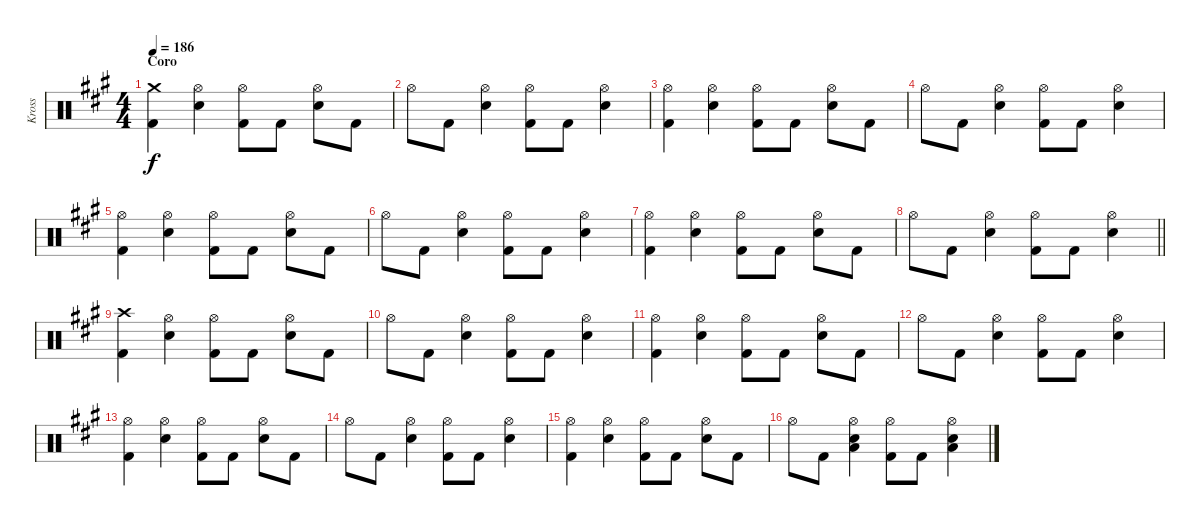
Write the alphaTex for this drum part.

\track ("Kross" "Kross") {instrument percussion}
\staff {score}
\articulation defaults
\ts (4 4)
\section ("" "Coro")
\tempo 186
\clef neutral
\ks a
("Crash medium (hit)" "Kick (hit) 2").4{dy f} ("Hi-Hat (open)" "Electric Snare (hit)").4 ("Hi-Hat (open)" "Kick (hit) 2").8 "Kick (hit) 2".8 ("Hi-Hat (open)" "Electric Snare (hit)").8 "Kick (hit) 2".8 |
"Hi-Hat (open)".8 "Kick (hit) 2".8 ("Hi-Hat (open)" "Electric Snare (hit)").4 ("Hi-Hat (open)" "Kick (hit) 2").8 "Kick (hit) 2".8 ("Hi-Hat (open)" "Electric Snare (hit)").4 |
("Hi-Hat (open)" "Kick (hit) 2").4 ("Hi-Hat (open)" "Electric Snare (hit)").4 ("Hi-Hat (open)" "Kick (hit) 2").8 "Kick (hit) 2".8 ("Hi-Hat (open)" "Electric Snare (hit)").8 "Kick (hit) 2".8 |
"Hi-Hat (open)".8 "Kick (hit) 2".8 ("Hi-Hat (open)" "Electric Snare (hit)").4 ("Hi-Hat (open)" "Kick (hit) 2").8 "Kick (hit) 2".8 ("Hi-Hat (open)" "Electric Snare (hit)").4 |
("Hi-Hat (open)" "Kick (hit) 2").4 ("Hi-Hat (open)" "Electric Snare (hit)").4 ("Hi-Hat (open)" "Kick (hit) 2").8 "Kick (hit) 2".8 ("Hi-Hat (open)" "Electric Snare (hit)").8 "Kick (hit) 2".8 |
"Hi-Hat (open)".8 "Kick (hit) 2".8 ("Hi-Hat (open)" "Electric Snare (hit)").4 ("Hi-Hat (open)" "Kick (hit) 2").8 "Kick (hit) 2".8 ("Hi-Hat (open)" "Electric Snare (hit)").4 |
("Hi-Hat (open)" "Kick (hit) 2").4 ("Hi-Hat (open)" "Electric Snare (hit)").4 ("Hi-Hat (open)" "Kick (hit) 2").8 "Kick (hit) 2".8 ("Hi-Hat (open)" "Electric Snare (hit)").8 "Kick (hit) 2".8 |
\barLineRight lightlight "Hi-Hat (open)".8 "Kick (hit) 2".8
("Hi-Hat (open)" "Electric Snare (hit)").4 ("Hi-Hat (open)" "Kick (hit) 2").8 "Kick (hit) 2".8 ("Hi-Hat (open)" "Electric Snare (hit)").4 |
("Crash high (hit)" "Kick (hit) 2").4 ("Hi-Hat (open)" "Electric Snare (hit)").4 ("Hi-Hat (open)" "Kick (hit) 2").8 "Kick (hit) 2".8 ("Hi-Hat (open)" "Electric Snare (hit)").8 "Kick (hit) 2".8 |
"Hi-Hat (open)".8 "Kick (hit) 2".8 ("Hi-Hat (open)" "Electric Snare (hit)").4 ("Hi-Hat (open)" "Kick (hit) 2").8 "Kick (hit) 2".8 ("Hi-Hat (open)" "Electric Snare (hit)").4 |
("Hi-Hat (open)" "Kick (hit) 2").4 ("Hi-Hat (open)" "Electric Snare (hit)").4 ("Hi-Hat (open)" "Kick (hit) 2").8 "Kick (hit) 2".8 ("Hi-Hat (open)" "Electric Snare (hit)").8 "Kick (hit) 2".8 |
"Hi-Hat (open)".8 "Kick (hit) 2".8 ("Hi-Hat (open)" "Electric Snare (hit)").4 ("Hi-Hat (open)" "Kick (hit) 2").8 "Kick (hit) 2".8 ("Hi-Hat (open)" "Electric Snare (hit)").4 |
("Hi-Hat (open)" "Kick (hit) 2").4 ("Hi-Hat (open)" "Electric Snare (hit)").4 ("Hi-Hat (open)" "Kick (hit) 2").8 "Kick (hit) 2".8 ("Hi-Hat (open)" "Electric Snare (hit)").8 "Kick (hit) 2".8 |
"Hi-Hat (open)".8 "Kick (hit) 2".8 ("Hi-Hat (open)" "Electric Snare (hit)").4 ("Hi-Hat (open)" "Kick (hit) 2").8 "Kick (hit) 2".8 ("Hi-Hat (open)" "Electric Snare (hit)").4 |
("Hi-Hat (open)" "Kick (hit) 2").4 ("Hi-Hat (open)" "Electric Snare (hit)").4 ("Hi-Hat (open)" "Kick (hit) 2").8 "Kick (hit) 2".8 ("Hi-Hat (open)" "Electric Snare (hit)").8 "Kick (hit) 2".8 |
"Hi-Hat (open)".8 "Kick (hit) 2".8 ("Hi-Hat (open)" "Electric Snare (hit)" "Low Floor Tom (hit)").4 ("Hi-Hat (open)" "Kick (hit) 2").8 "Kick (hit) 2".8 ("Hi-Hat (open)" "Electric Snare (hit)" "Low Floor Tom (hit)").4
